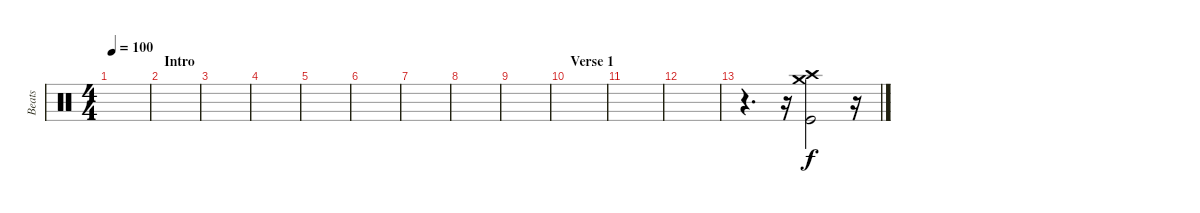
\track ("Beats" "Beats") {instrument percussion}
\staff {score}
\articulation defaults
\ts (4 4)
\tempo 100
\clef neutral
\ks c
|
\section ("" "Intro")
|
|
|
|
|
|
|
|
\section ("" "Verse 1")
|
|
|
r.4{d} r.16 ("Crash medium (hit)" "Crash high (hit)" "Kick (hit)").2 r.16
